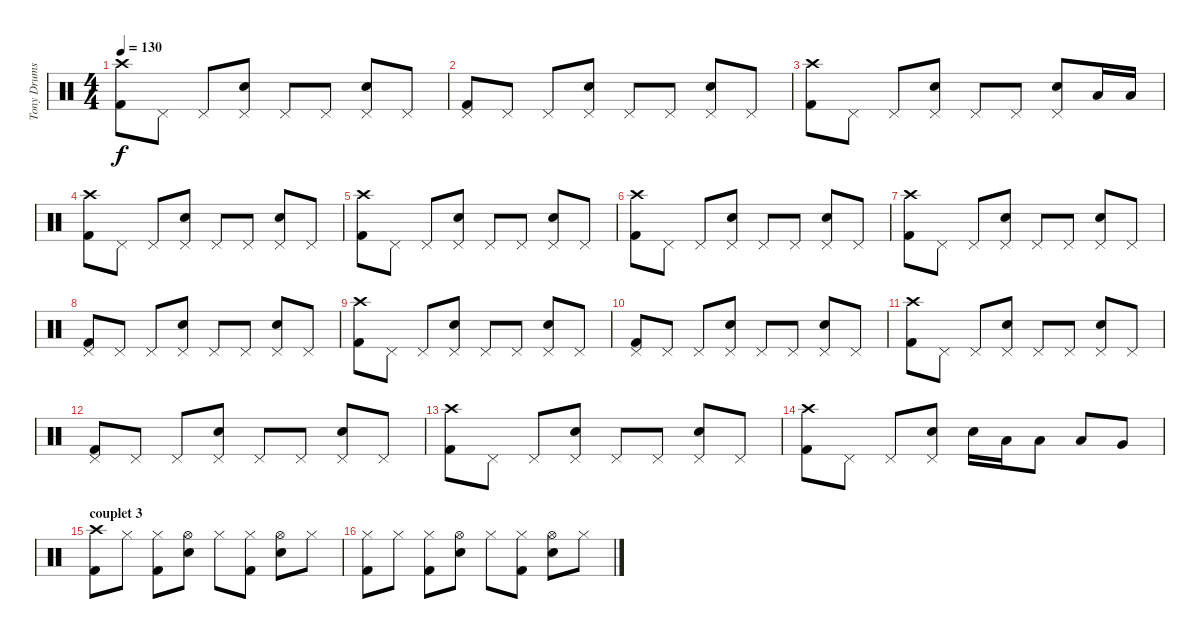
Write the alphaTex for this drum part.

\track ("Tony Drums" "Tony Drums") {instrument percussion}
\staff {score}
\articulation defaults
\ts (4 4)
\tempo 130
\clef neutral
\ks c
("Crash high (hit)" "Kick (hit) 2").8{dy f} "Pedal Hi-Hat (hit)".8 "Pedal Hi-Hat (hit)".8 ("Pedal Hi-Hat (hit)" "Snare (hit) 2").8 "Pedal Hi-Hat (hit)".8 "Pedal Hi-Hat (hit)".8 ("Pedal Hi-Hat (hit)" "Snare (hit) 2").8 "Pedal Hi-Hat (hit)".8 |
("Pedal Hi-Hat (hit)" "Kick (hit) 2").8 "Pedal Hi-Hat (hit)".8 "Pedal Hi-Hat (hit)".8 ("Pedal Hi-Hat (hit)" "Snare (hit) 2").8 "Pedal Hi-Hat (hit)".8 "Pedal Hi-Hat (hit)".8 ("Pedal Hi-Hat (hit)" "Snare (hit) 2").8 "Pedal Hi-Hat (hit)".8 |
("Crash high (hit)" "Kick (hit) 2").8 "Pedal Hi-Hat (hit)".8 "Pedal Hi-Hat (hit)".8 ("Pedal Hi-Hat (hit)" "Snare (hit) 2").8 "Pedal Hi-Hat (hit)".8 "Pedal Hi-Hat (hit)".8 ("Pedal Hi-Hat (hit)" "Snare (hit) 2").8 "Low Tom (hit)".16 "Low Tom (hit)".16 |
("Crash high (hit)" "Kick (hit) 2").8 "Pedal Hi-Hat (hit)".8 "Pedal Hi-Hat (hit)".8 ("Pedal Hi-Hat (hit)" "Snare (hit) 2").8 "Pedal Hi-Hat (hit)".8 "Pedal Hi-Hat (hit)".8 ("Pedal Hi-Hat (hit)" "Snare (hit) 2").8 "Pedal Hi-Hat (hit)".8 |
("Crash high (hit)" "Kick (hit) 2").8 "Pedal Hi-Hat (hit)".8 "Pedal Hi-Hat (hit)".8 ("Pedal Hi-Hat (hit)" "Snare (hit) 2").8 "Pedal Hi-Hat (hit)".8 "Pedal Hi-Hat (hit)".8 ("Pedal Hi-Hat (hit)" "Snare (hit) 2").8 "Pedal Hi-Hat (hit)".8 |
("Crash high (hit)" "Kick (hit) 2").8 "Pedal Hi-Hat (hit)".8 "Pedal Hi-Hat (hit)".8 ("Pedal Hi-Hat (hit)" "Snare (hit) 2").8 "Pedal Hi-Hat (hit)".8 "Pedal Hi-Hat (hit)".8 ("Pedal Hi-Hat (hit)" "Snare (hit) 2").8 "Pedal Hi-Hat (hit)".8 |
("Crash high (hit)" "Kick (hit) 2").8 "Pedal Hi-Hat (hit)".8 "Pedal Hi-Hat (hit)".8 ("Pedal Hi-Hat (hit)" "Snare (hit) 2").8 "Pedal Hi-Hat (hit)".8 "Pedal Hi-Hat (hit)".8 ("Pedal Hi-Hat (hit)" "Snare (hit) 2").8 "Pedal Hi-Hat (hit)".8 |
("Pedal Hi-Hat (hit)" "Kick (hit) 2").8 "Pedal Hi-Hat (hit)".8 "Pedal Hi-Hat (hit)".8 ("Pedal Hi-Hat (hit)" "Snare (hit) 2").8 "Pedal Hi-Hat (hit)".8 "Pedal Hi-Hat (hit)".8 ("Pedal Hi-Hat (hit)" "Snare (hit) 2").8 "Pedal Hi-Hat (hit)".8 |
("Crash high (hit)" "Kick (hit) 2").8 "Pedal Hi-Hat (hit)".8 "Pedal Hi-Hat (hit)".8 ("Pedal Hi-Hat (hit)" "Snare (hit) 2").8 "Pedal Hi-Hat (hit)".8 "Pedal Hi-Hat (hit)".8 ("Pedal Hi-Hat (hit)" "Snare (hit) 2").8 "Pedal Hi-Hat (hit)".8 |
("Pedal Hi-Hat (hit)" "Kick (hit) 2").8 "Pedal Hi-Hat (hit)".8 "Pedal Hi-Hat (hit)".8 ("Pedal Hi-Hat (hit)" "Snare (hit) 2").8 "Pedal Hi-Hat (hit)".8 "Pedal Hi-Hat (hit)".8 ("Pedal Hi-Hat (hit)" "Snare (hit) 2").8 "Pedal Hi-Hat (hit)".8 |
("Crash high (hit)" "Kick (hit) 2").8 "Pedal Hi-Hat (hit)".8 "Pedal Hi-Hat (hit)".8 ("Pedal Hi-Hat (hit)" "Snare (hit) 2").8 "Pedal Hi-Hat (hit)".8 "Pedal Hi-Hat (hit)".8 ("Pedal Hi-Hat (hit)" "Snare (hit) 2").8 "Pedal Hi-Hat (hit)".8 |
("Pedal Hi-Hat (hit)" "Kick (hit) 2").8 "Pedal Hi-Hat (hit)".8 "Pedal Hi-Hat (hit)".8 ("Pedal Hi-Hat (hit)" "Snare (hit) 2").8 "Pedal Hi-Hat (hit)".8 "Pedal Hi-Hat (hit)".8 ("Pedal Hi-Hat (hit)" "Snare (hit) 2").8 "Pedal Hi-Hat (hit)".8 |
("Crash high (hit)" "Kick (hit) 2").8 "Pedal Hi-Hat (hit)".8 "Pedal Hi-Hat (hit)".8 ("Pedal Hi-Hat (hit)" "Snare (hit) 2").8 "Pedal Hi-Hat (hit)".8 "Pedal Hi-Hat (hit)".8 ("Pedal Hi-Hat (hit)" "Snare (hit) 2").8 "Pedal Hi-Hat (hit)".8 |
("Crash high (hit)" "Kick (hit) 2").8 "Pedal Hi-Hat (hit)".8 "Pedal Hi-Hat (hit)".8 ("Pedal Hi-Hat (hit)" "Snare (hit) 2").8 "Snare (hit) 2".16 "Low Tom (hit)".16 "Low Tom (hit)".8 "Low Tom (hit)".8 "Very Low Tom (hit)".8 |
\section ("" "couplet 3")
("Crash high (hit)" "Kick (hit) 2").8 "Hi-Hat (closed)".8 ("Hi-Hat (closed)" "Kick (hit) 2").8 ("Hi-Hat (open)" "Snare (hit) 2").8 "Hi-Hat (closed)".8 ("Hi-Hat (closed)" "Kick (hit) 2").8 ("Hi-Hat (open)" "Snare (hit) 2").8 "Hi-Hat (closed)".8 |
("Hi-Hat (closed)" "Kick (hit) 2").8 "Hi-Hat (closed)".8 ("Hi-Hat (closed)" "Kick (hit) 2").8 ("Hi-Hat (open)" "Snare (hit) 2").8 "Hi-Hat (closed)".8 ("Hi-Hat (closed)" "Kick (hit) 2").8 ("Hi-Hat (open)" "Snare (hit) 2").8 "Hi-Hat (closed)".8
